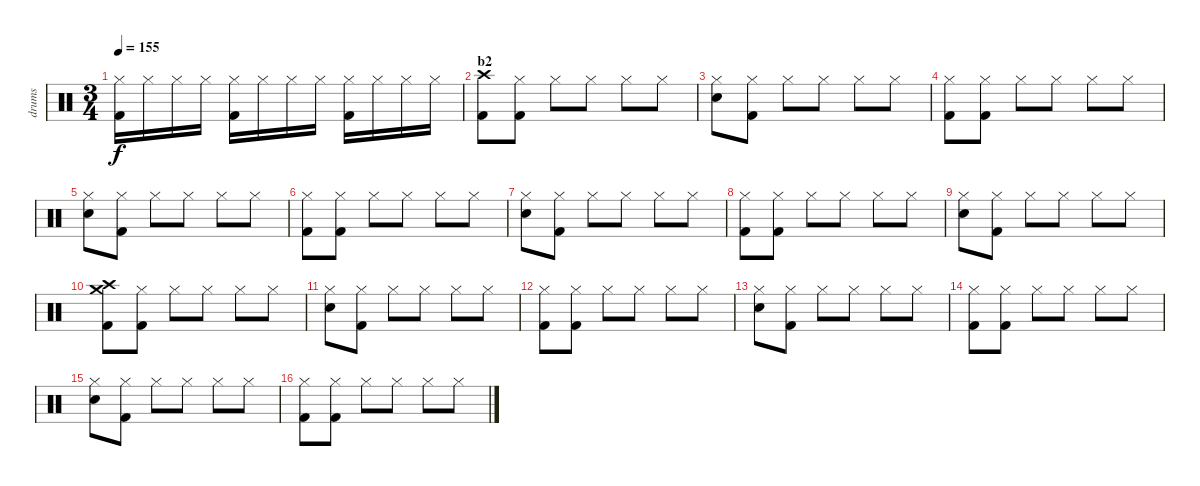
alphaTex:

\track ("drums" "drums") {instrument percussion}
\staff {score}
\articulation defaults
\ts (3 4)
\tempo 155
\clef neutral
\ks c
("Hi-Hat (closed)" "Kick (hit) 2").16{dy f} "Hi-Hat (closed)".16 "Hi-Hat (closed)".16 "Hi-Hat (closed)".16 ("Hi-Hat (closed)" "Kick (hit) 2").16 "Hi-Hat (closed)".16 "Hi-Hat (closed)".16 "Hi-Hat (closed)".16 ("Hi-Hat (closed)" "Kick (hit) 2").16 "Hi-Hat (closed)".16 "Hi-Hat (closed)".16 "Hi-Hat (closed)".16 |
\section ("" "b2")
("Crash high (hit)" "Kick (hit) 2").8 ("Hi-Hat (closed)" "Kick (hit) 2").8 "Hi-Hat (closed)".8 "Hi-Hat (closed)".8 "Hi-Hat (closed)".8 "Hi-Hat (closed)".8 |
("Hi-Hat (closed)" "Electric Snare (hit)").8 ("Hi-Hat (closed)" "Kick (hit) 2").8 "Hi-Hat (closed)".8 "Hi-Hat (closed)".8 "Hi-Hat (closed)".8 "Hi-Hat (closed)".8 |
("Hi-Hat (closed)" "Kick (hit) 2").8 ("Hi-Hat (closed)" "Kick (hit) 2").8 "Hi-Hat (closed)".8 "Hi-Hat (closed)".8 "Hi-Hat (closed)".8 "Hi-Hat (closed)".8 |
("Hi-Hat (closed)" "Electric Snare (hit)").8 ("Hi-Hat (closed)" "Kick (hit) 2").8 "Hi-Hat (closed)".8 "Hi-Hat (closed)".8 "Hi-Hat (closed)".8 "Hi-Hat (closed)".8 |
("Hi-Hat (closed)" "Kick (hit) 2").8 ("Hi-Hat (closed)" "Kick (hit) 2").8 "Hi-Hat (closed)".8 "Hi-Hat (closed)".8 "Hi-Hat (closed)".8 "Hi-Hat (closed)".8 |
("Hi-Hat (closed)" "Electric Snare (hit)").8 ("Hi-Hat (closed)" "Kick (hit) 2").8 "Hi-Hat (closed)".8 "Hi-Hat (closed)".8 "Hi-Hat (closed)".8 "Hi-Hat (closed)".8 |
("Hi-Hat (closed)" "Kick (hit) 2").8 ("Hi-Hat (closed)" "Kick (hit) 2").8 "Hi-Hat (closed)".8 "Hi-Hat (closed)".8 "Hi-Hat (closed)".8 "Hi-Hat (closed)".8 |
("Hi-Hat (closed)" "Electric Snare (hit)").8 ("Hi-Hat (closed)" "Kick (hit) 2").8 "Hi-Hat (closed)".8 "Hi-Hat (closed)".8 "Hi-Hat (closed)".8 "Hi-Hat (closed)".8 |
("Crash high (hit)" "Crash medium (hit)" "Kick (hit) 2").8 ("Hi-Hat (closed)" "Kick (hit) 2").8 "Hi-Hat (closed)".8 "Hi-Hat (closed)".8 "Hi-Hat (closed)".8 "Hi-Hat (closed)".8 |
("Hi-Hat (closed)" "Electric Snare (hit)").8 ("Hi-Hat (closed)" "Kick (hit) 2").8 "Hi-Hat (closed)".8 "Hi-Hat (closed)".8 "Hi-Hat (closed)".8 "Hi-Hat (closed)".8 |
("Hi-Hat (closed)" "Kick (hit) 2").8 ("Hi-Hat (closed)" "Kick (hit) 2").8 "Hi-Hat (closed)".8 "Hi-Hat (closed)".8 "Hi-Hat (closed)".8 "Hi-Hat (closed)".8 |
("Hi-Hat (closed)" "Electric Snare (hit)").8 ("Hi-Hat (closed)" "Kick (hit) 2").8 "Hi-Hat (closed)".8 "Hi-Hat (closed)".8 "Hi-Hat (closed)".8 "Hi-Hat (closed)".8 |
("Hi-Hat (closed)" "Kick (hit) 2").8 ("Hi-Hat (closed)" "Kick (hit) 2").8 "Hi-Hat (closed)".8 "Hi-Hat (closed)".8 "Hi-Hat (closed)".8 "Hi-Hat (closed)".8 |
("Hi-Hat (closed)" "Electric Snare (hit)").8 ("Hi-Hat (closed)" "Kick (hit) 2").8 "Hi-Hat (closed)".8 "Hi-Hat (closed)".8 "Hi-Hat (closed)".8 "Hi-Hat (closed)".8 |
("Hi-Hat (closed)" "Kick (hit) 2").8 ("Hi-Hat (closed)" "Kick (hit) 2").8 "Hi-Hat (closed)".8 "Hi-Hat (closed)".8 "Hi-Hat (closed)".8 "Hi-Hat (closed)".8
